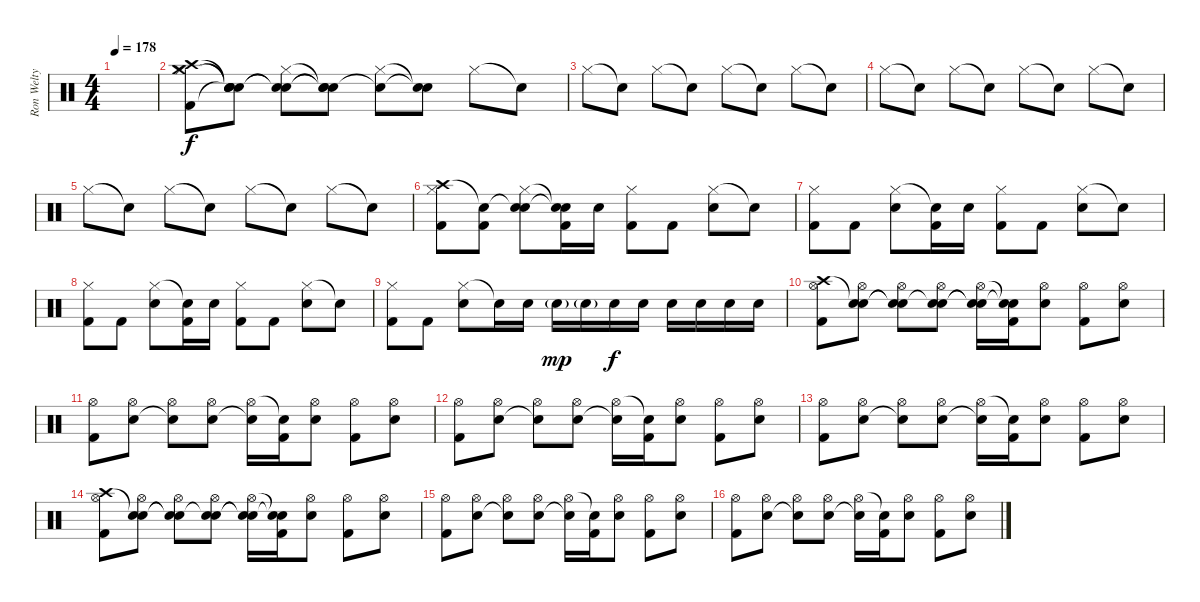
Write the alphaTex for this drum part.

\track ("Ron Welty (Drums)" "Ron Welty ") {instrument percussion}
\staff {score}
\articulation defaults
\ts (4 4)
\tempo 178
\clef neutral
\ks c
|
("Crash high (hit)" "Crash medium (hit)" "Hi-Hat (closed)" "Kick (hit) 2").8 ("Snare (hit)"{t} "Snare (hit)"{t} "Snare (hit)"{t} "Snare (hit)"{t}).8 ("Snare (hit)"{t} "Snare (hit)"{t} "Hi-Hat (closed)").8 ("Snare (hit)"{t} "Snare (hit)"{t} "Snare (hit)"{t}).8 ("Snare (hit)"{t} "Hi-Hat (closed)").8 ("Snare (hit)"{t} "Snare (hit)"{t}).8 "Hi-Hat (closed)".8 "Snare (hit)"{t}.8 |
"Hi-Hat (closed)".8 "Snare (hit)"{t}.8 "Hi-Hat (closed)".8 "Snare (hit)"{t}.8 "Hi-Hat (closed)".8 "Snare (hit)"{t}.8 "Hi-Hat (closed)".8 "Snare (hit)"{t}.8 |
"Hi-Hat (closed)".8 "Snare (hit)"{t}.8 "Hi-Hat (closed)".8 "Snare (hit)"{t}.8 "Hi-Hat (closed)".8 "Snare (hit)"{t}.8 "Hi-Hat (closed)".8 "Snare (hit)"{t}.8 |
"Hi-Hat (closed)".8 "Snare (hit)"{t}.8 "Hi-Hat (closed)".8 "Snare (hit)"{t}.8 "Hi-Hat (closed)".8 "Snare (hit)"{t}.8 "Hi-Hat (closed)".8 "Snare (hit)"{t}.8 |
("Crash high (hit)" "Hi-Hat (closed)" "Kick (hit) 2").8 ("Snare (hit)"{t} "Kick (hit) 2").8 ("Snare (hit)"{t} "Hi-Hat (closed)" "Electric Snare (hit)").8 ("Snare (hit)"{t} "Snare (hit)"{t} "Kick (hit) 2").16 "Electric Snare (hit)".16 ("Hi-Hat (closed)" "Kick (hit) 2").8 "Kick (hit) 2".8 ("Hi-Hat (closed)" "Electric Snare (hit)").8 "Snare (hit)"{t}.8 |
("Hi-Hat (closed)" "Kick (hit) 2").8 "Kick (hit) 2".8 ("Hi-Hat (closed)" "Electric Snare (hit)").8 ("Snare (hit)"{t} "Kick (hit) 2").16 "Electric Snare (hit)".16 ("Hi-Hat (closed)" "Kick (hit) 2").8 "Kick (hit) 2".8 ("Hi-Hat (closed)" "Electric Snare (hit)").8 "Snare (hit)"{t}.8 |
("Hi-Hat (closed)" "Kick (hit) 2").8 "Kick (hit) 2".8 ("Hi-Hat (closed)" "Electric Snare (hit)").8 ("Snare (hit)"{t} "Kick (hit) 2").16 "Electric Snare (hit)".16 ("Hi-Hat (closed)" "Kick (hit) 2").8 "Kick (hit) 2".8 ("Hi-Hat (closed)" "Electric Snare (hit)").8 "Snare (hit)"{t}.8 |
("Hi-Hat (closed)" "Kick (hit) 2").8 "Kick (hit) 2".8 ("Hi-Hat (closed)" "Electric Snare (hit)").8 "Snare (hit)"{t}.16 "Electric Snare (hit)".16 "Electric Snare (hit)"{g}.16{dy mp} "Electric Snare (hit)"{g}.16 "Electric Snare (hit)".16{dy f} "Electric Snare (hit)".16 "Electric Snare (hit)".16 "Electric Snare (hit)".16 "Electric Snare (hit)".16 "Electric Snare (hit)".16 |
("Crash high (hit)" "Hi-Hat (open)" "Kick (hit) 2").8 ("Snare (hit)"{t} "Hi-Hat (open)" "Electric Snare (hit)").8 ("Snare (hit)"{t} "Hi-Hat (open)" "Snare (hit)"{t}).8 ("Snare (hit)"{t} "Hi-Hat (open)" "Electric Snare (hit)").8 ("Snare (hit)"{t} "Hi-Hat (open)" "Snare (hit)"{t}).16 ("Snare (hit)"{t} "Snare (hit)"{t} "Kick (hit) 2").16 ("Hi-Hat (open)" "Electric Snare (hit)").8 ("Hi-Hat (open)" "Kick (hit) 2").8 ("Hi-Hat (open)" "Electric Snare (hit)").8 |
("Hi-Hat (open)" "Kick (hit) 2").8 ("Hi-Hat (open)" "Electric Snare (hit)").8 ("Hi-Hat (open)" "Snare (hit)"{t}).8 ("Hi-Hat (open)" "Electric Snare (hit)").8 ("Hi-Hat (open)" "Snare (hit)"{t}).16 ("Snare (hit)"{t} "Kick (hit) 2").16 ("Hi-Hat (open)" "Electric Snare (hit)").8 ("Hi-Hat (open)" "Kick (hit) 2").8 ("Hi-Hat (open)" "Electric Snare (hit)").8 |
("Hi-Hat (open)" "Kick (hit) 2").8 ("Hi-Hat (open)" "Electric Snare (hit)").8 ("Hi-Hat (open)" "Snare (hit)"{t}).8 ("Hi-Hat (open)" "Electric Snare (hit)").8 ("Hi-Hat (open)" "Snare (hit)"{t}).16 ("Snare (hit)"{t} "Kick (hit) 2").16 ("Hi-Hat (open)" "Electric Snare (hit)").8 ("Hi-Hat (open)" "Kick (hit) 2").8 ("Hi-Hat (open)" "Electric Snare (hit)").8 |
("Hi-Hat (open)" "Kick (hit) 2").8 ("Hi-Hat (open)" "Electric Snare (hit)").8 ("Hi-Hat (open)" "Snare (hit)"{t}).8 ("Hi-Hat (open)" "Electric Snare (hit)").8 ("Hi-Hat (open)" "Snare (hit)"{t}).16 ("Snare (hit)"{t} "Kick (hit) 2").16 ("Hi-Hat (open)" "Electric Snare (hit)").8 ("Hi-Hat (open)" "Kick (hit) 2").8 ("Hi-Hat (open)" "Electric Snare (hit)").8 |
("Crash high (hit)" "Hi-Hat (open)" "Kick (hit) 2").8 ("Snare (hit)"{t} "Hi-Hat (open)" "Electric Snare (hit)").8 ("Snare (hit)"{t} "Hi-Hat (open)" "Snare (hit)"{t}).8 ("Snare (hit)"{t} "Hi-Hat (open)" "Electric Snare (hit)").8 ("Snare (hit)"{t} "Hi-Hat (open)" "Snare (hit)"{t}).16 ("Snare (hit)"{t} "Snare (hit)"{t} "Kick (hit) 2").16 ("Hi-Hat (open)" "Electric Snare (hit)").8 ("Hi-Hat (open)" "Kick (hit) 2").8 ("Hi-Hat (open)" "Electric Snare (hit)").8 |
("Hi-Hat (open)" "Kick (hit) 2").8 ("Hi-Hat (open)" "Electric Snare (hit)").8 ("Hi-Hat (open)" "Snare (hit)"{t}).8 ("Hi-Hat (open)" "Electric Snare (hit)").8 ("Hi-Hat (open)" "Snare (hit)"{t}).16 ("Snare (hit)"{t} "Kick (hit) 2").16 ("Hi-Hat (open)" "Electric Snare (hit)").8 ("Hi-Hat (open)" "Kick (hit) 2").8 ("Hi-Hat (open)" "Electric Snare (hit)").8 |
("Hi-Hat (open)" "Kick (hit) 2").8 ("Hi-Hat (open)" "Electric Snare (hit)").8 ("Hi-Hat (open)" "Snare (hit)"{t}).8 ("Hi-Hat (open)" "Electric Snare (hit)").8 ("Hi-Hat (open)" "Snare (hit)"{t}).16 ("Snare (hit)"{t} "Kick (hit) 2").16 ("Hi-Hat (open)" "Electric Snare (hit)").8 ("Hi-Hat (open)" "Kick (hit) 2").8 ("Hi-Hat (open)" "Electric Snare (hit)").8
